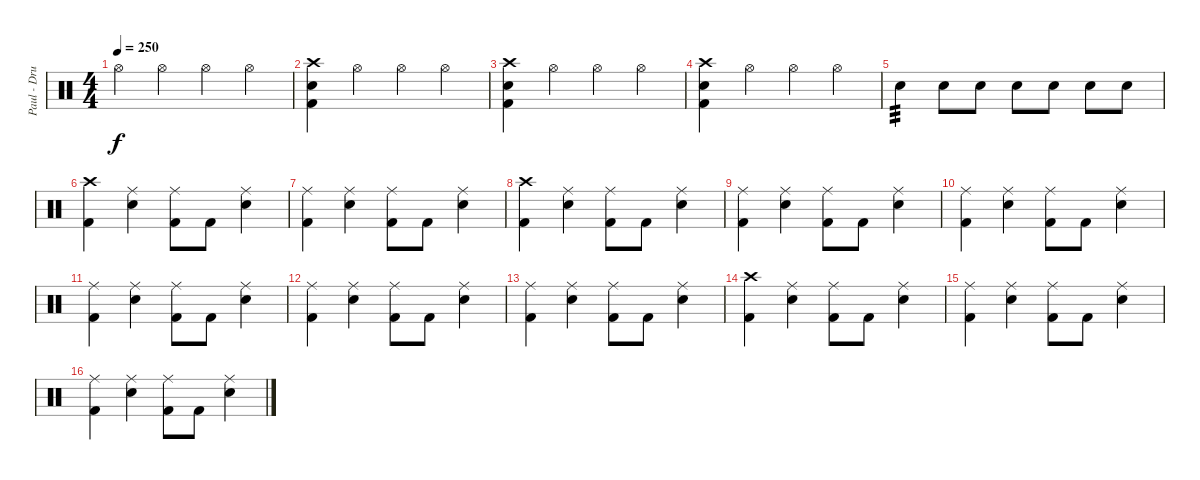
\track ("Paul - Drums" "Paul - Dru") {instrument percussion}
\staff {score}
\articulation defaults
\ts (4 4)
\tempo 250
\clef neutral
\ks c "Hi-Hat (open)".4{dy f} "Hi-Hat (open)".4 "Hi-Hat (open)".4 "Hi-Hat (open)".4
|
("Crash high (hit)" "Electric Snare (hit)" "Kick (hit) 2").4 "Hi-Hat (open)".4 "Hi-Hat (open)".4 "Hi-Hat (open)".4 |
("Crash high (hit)" "Electric Snare (hit)" "Kick (hit) 2").4 "Hi-Hat (open)".4 "Hi-Hat (open)".4 "Hi-Hat (open)".4 |
("Crash high (hit)" "Electric Snare (hit)" "Kick (hit) 2").4 "Hi-Hat (open)".4 "Hi-Hat (open)".4 "Hi-Hat (open)".4 |
"Electric Snare (hit)".4{tp 3} "Electric Snare (hit)".8 "Electric Snare (hit)".8 "Electric Snare (hit)".8 "Electric Snare (hit)".8 "Electric Snare (hit)".8 "Electric Snare (hit)".8 |
("Crash high (hit)" "Kick (hit) 2").4 ("Ride (middle)" "Electric Snare (hit)").4 ("Ride (middle)" "Kick (hit) 2").8 "Kick (hit) 2".8 ("Ride (middle)" "Electric Snare (hit)").4 |
("Ride (middle)" "Kick (hit) 2").4 ("Ride (middle)" "Electric Snare (hit)").4 ("Ride (middle)" "Kick (hit) 2").8 "Kick (hit) 2".8 ("Ride (middle)" "Electric Snare (hit)").4 |
("Crash high (hit)" "Kick (hit) 2").4 ("Ride (middle)" "Electric Snare (hit)").4 ("Ride (middle)" "Kick (hit) 2").8 "Kick (hit) 2".8 ("Ride (middle)" "Electric Snare (hit)").4 |
("Ride (middle)" "Kick (hit) 2").4 ("Ride (middle)" "Electric Snare (hit)").4 ("Ride (middle)" "Kick (hit) 2").8 "Kick (hit) 2".8 ("Ride (middle)" "Electric Snare (hit)").4 |
("Ride (middle)" "Kick (hit) 2").4 ("Ride (middle)" "Electric Snare (hit)").4 ("Ride (middle)" "Kick (hit) 2").8 "Kick (hit) 2".8 ("Ride (middle)" "Electric Snare (hit)").4 |
("Ride (middle)" "Kick (hit) 2").4 ("Ride (middle)" "Electric Snare (hit)").4 ("Ride (middle)" "Kick (hit) 2").8 "Kick (hit) 2".8 ("Ride (middle)" "Electric Snare (hit)").4 |
("Ride (middle)" "Kick (hit) 2").4 ("Ride (middle)" "Electric Snare (hit)").4 ("Ride (middle)" "Kick (hit) 2").8 "Kick (hit) 2".8 ("Ride (middle)" "Electric Snare (hit)").4 |
("Ride (middle)" "Kick (hit) 2").4 ("Ride (middle)" "Electric Snare (hit)").4 ("Ride (middle)" "Kick (hit) 2").8 "Kick (hit) 2".8 ("Ride (middle)" "Electric Snare (hit)").4 |
("Crash high (hit)" "Kick (hit) 2").4 ("Ride (middle)" "Electric Snare (hit)").4 ("Ride (middle)" "Kick (hit) 2").8 "Kick (hit) 2".8 ("Ride (middle)" "Electric Snare (hit)").4 |
("Ride (middle)" "Kick (hit) 2").4 ("Ride (middle)" "Electric Snare (hit)").4 ("Ride (middle)" "Kick (hit) 2").8 "Kick (hit) 2".8 ("Ride (middle)" "Electric Snare (hit)").4 |
("Ride (middle)" "Kick (hit) 2").4 ("Ride (middle)" "Electric Snare (hit)").4 ("Ride (middle)" "Kick (hit) 2").8 "Kick (hit) 2".8 ("Ride (middle)" "Electric Snare (hit)").4
